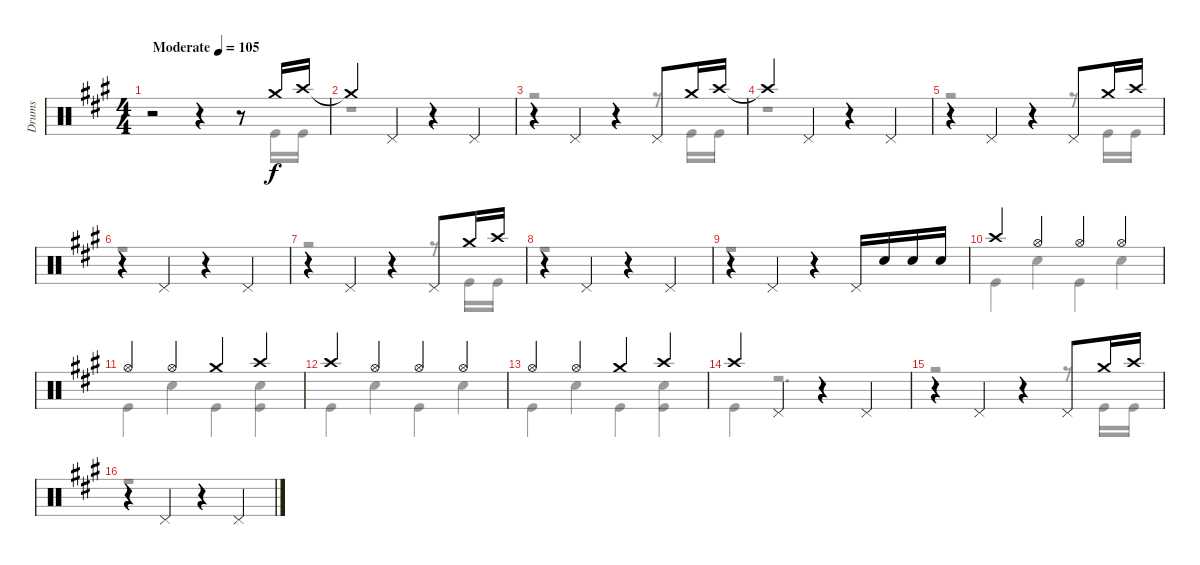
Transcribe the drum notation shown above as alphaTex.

\track ("Drums" "Drums") {instrument percussion}
\staff {score}
\articulation defaults
\voice
\ts (4 4)
\tempo (105 "Moderate")
\clef neutral
\ks f#minor
r.2{dy f} r.4 r.8 "Crash medium (hit)".16 "Crash high (hit)".16 |
"Crash medium (hit)"{t}.4 "Pedal Hi-Hat (hit)".4 r.4 "Pedal Hi-Hat (hit)".4 |
r.4 "Pedal Hi-Hat (hit)".4 r.4 "Pedal Hi-Hat (hit)".8 "Crash medium (hit)".16 "Crash high (hit)".16 |
"Crash high (hit)"{t}.4 "Pedal Hi-Hat (hit)".4 r.4 "Pedal Hi-Hat (hit)".4 |
r.4 "Pedal Hi-Hat (hit)".4 r.4 "Pedal Hi-Hat (hit)".8 "Crash medium (hit)".16 "Crash high (hit)".16 |
r.4 "Pedal Hi-Hat (hit)".4 r.4 "Pedal Hi-Hat (hit)".4 |
r.4 "Pedal Hi-Hat (hit)".4 r.4 "Pedal Hi-Hat (hit)".8 "Crash medium (hit)".16 "Crash high (hit)".16 |
r.4 "Pedal Hi-Hat (hit)".4 r.4 "Pedal Hi-Hat (hit)".4 |
r.4 "Pedal Hi-Hat (hit)".4 r.4 "Pedal Hi-Hat (hit)".16 "Snare (hit) 2".16 "Snare (hit) 2".16 "Snare (hit) 2".16 |
"Crash high (hit)".4 "Hi-Hat (open)".4 "Hi-Hat (open)".4 "Hi-Hat (open)".4 |
"Hi-Hat (open)".4 "Hi-Hat (open)".4 "Crash medium (hit)".4 "Crash high (hit)".4 |
"Crash high (hit)".4 "Hi-Hat (open)".4 "Hi-Hat (open)".4 "Hi-Hat (open)".4 |
"Hi-Hat (open)".4 "Hi-Hat (open)".4 "Crash medium (hit)".4 "Crash high (hit)".4 |
"Crash high (hit)".4 "Pedal Hi-Hat (hit)".4 r.4 "Pedal Hi-Hat (hit)".4 |
r.4 "Pedal Hi-Hat (hit)".4 r.4 "Pedal Hi-Hat (hit)".8 "Crash medium (hit)".16 "Crash high (hit)".16 |
r.4 "Pedal Hi-Hat (hit)".4 r.4 "Pedal Hi-Hat (hit)".4
\voice
\clef neutral
\ottava regular
\simile none
\ks f#minor
r.2{dy f} r.4 r.8 "Kick (hit)".16 "Kick (hit)".16 |
r.1 |
r.2 r.4 r.8 "Kick (hit)".16 "Kick (hit)".16 |
r.1 |
r.2 r.4 r.8 "Kick (hit)".16 "Kick (hit)".16 |
r.1 |
r.2 r.4 r.8 "Kick (hit)".16 "Kick (hit)".16 |
r.1 |
r.1 |
"Kick (hit)".4 "Snare (hit) 2".4 "Kick (hit)".4 "Snare (hit) 2".4 |
"Kick (hit)".4 "Snare (hit) 2".4 "Kick (hit)".4 ("Snare (hit) 2" "Kick (hit)").4 |
"Kick (hit)".4 "Snare (hit) 2".4 "Kick (hit)".4 "Snare (hit) 2".4 |
"Kick (hit)".4 "Snare (hit) 2".4 "Kick (hit)".4 ("Snare (hit) 2" "Kick (hit)").4 |
"Kick (hit)".4 r.2{d} |
r.2 r.4 r.8 "Kick (hit)".16 "Kick (hit)".16 |
r.1
